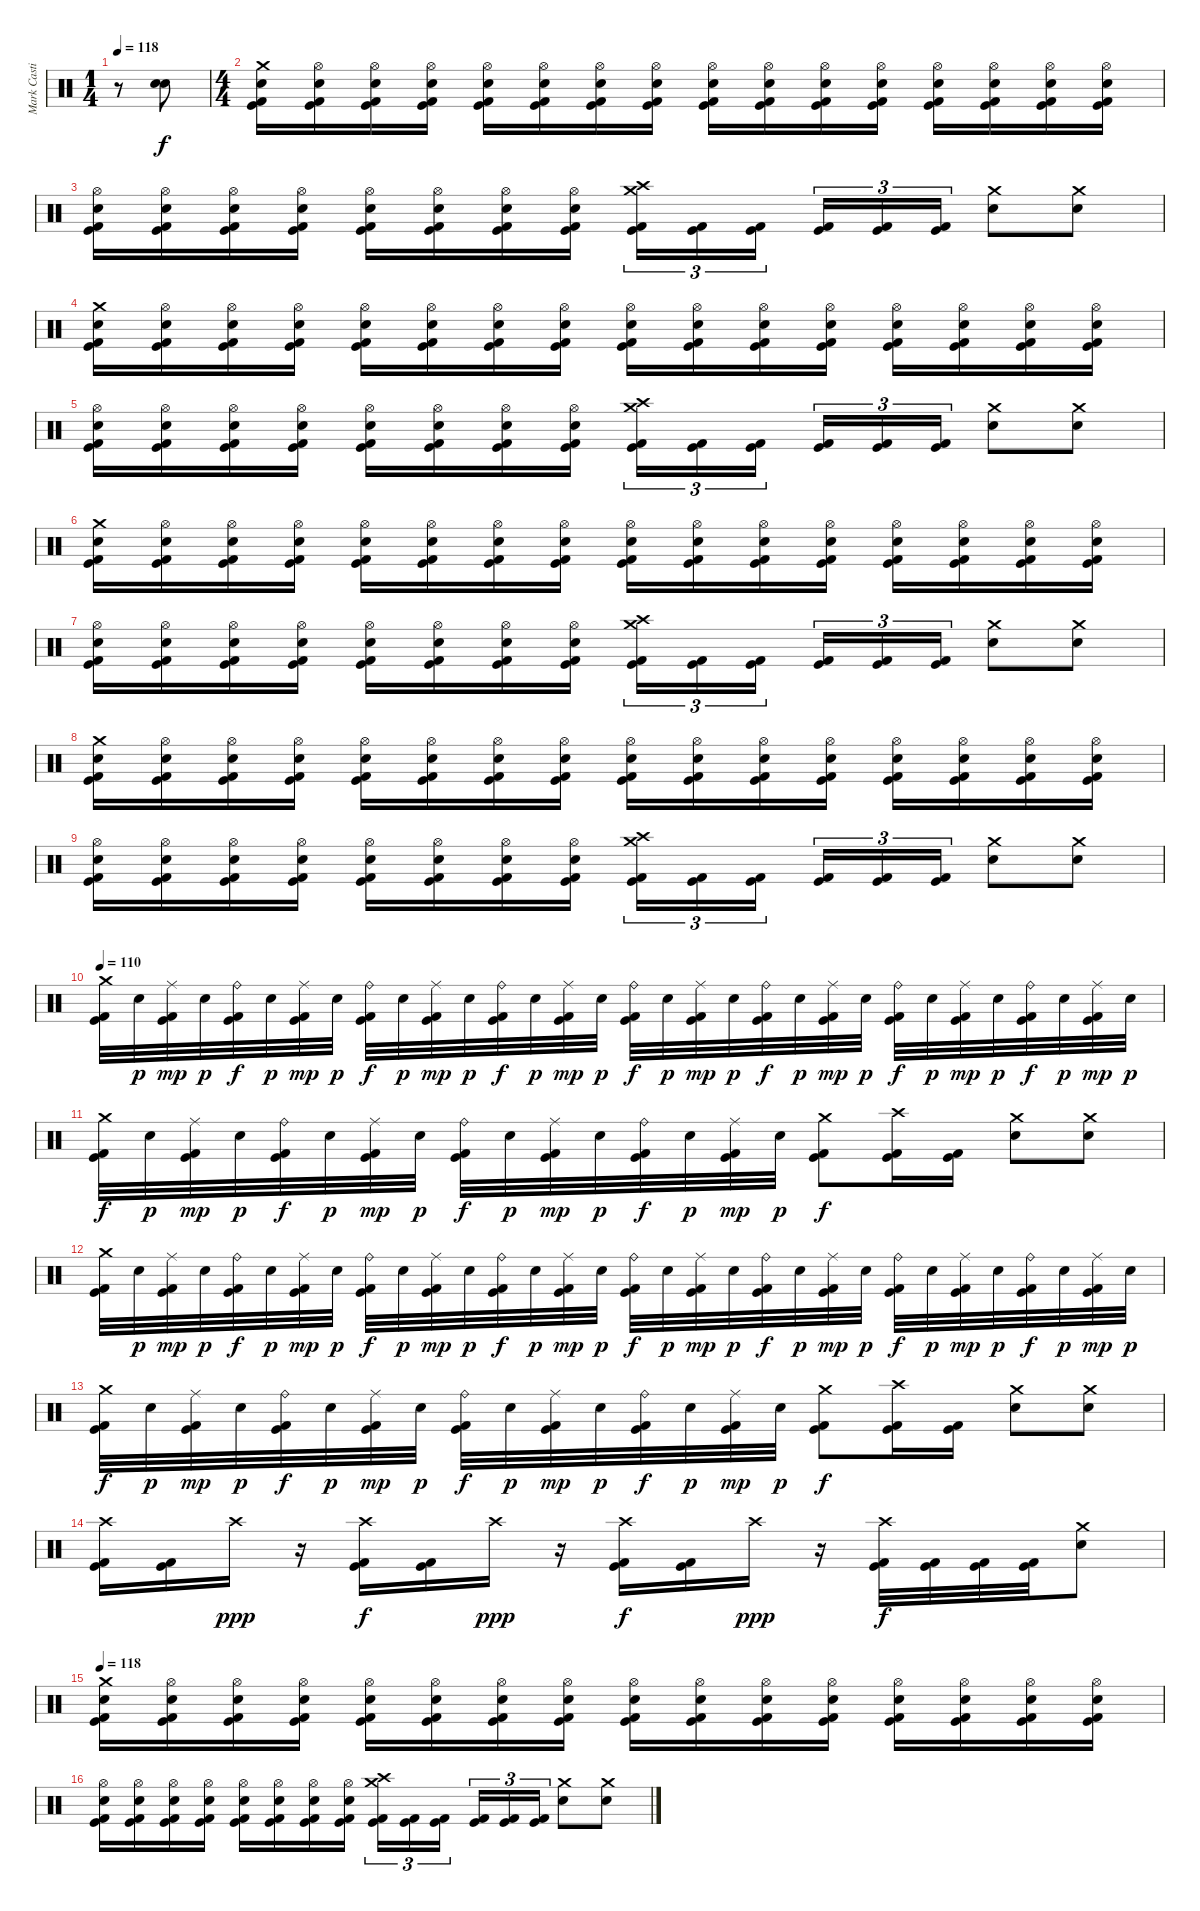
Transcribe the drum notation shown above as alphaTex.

\track ("Mark Castillo" "Mark Casti") {instrument percussion}
\staff {score}
\articulation defaults
\ts (1 4)
\tempo 118
\clef neutral
\ks c
r.8{dy f} ("Electric Snare (hit)" "Electric Snare (hit)").8{bu 240} |
\ts (4 4)
("Crash medium (hit)" "Electric Snare (hit)" "Kick (hit)" "Kick (hit) 2").16 ("Hi-Hat (open)" "Electric Snare (hit)" "Kick (hit)" "Kick (hit) 2").16 ("Hi-Hat (open)" "Electric Snare (hit)" "Kick (hit)" "Kick (hit) 2").16 ("Hi-Hat (open)" "Electric Snare (hit)" "Kick (hit)" "Kick (hit) 2").16 ("Hi-Hat (open)" "Electric Snare (hit)" "Kick (hit)" "Kick (hit) 2").16 ("Hi-Hat (open)" "Electric Snare (hit)" "Kick (hit)" "Kick (hit) 2").16 ("Hi-Hat (open)" "Electric Snare (hit)" "Kick (hit)" "Kick (hit) 2").16 ("Hi-Hat (open)" "Electric Snare (hit)" "Kick (hit)" "Kick (hit) 2").16 ("Hi-Hat (open)" "Electric Snare (hit)" "Kick (hit)" "Kick (hit) 2").16 ("Hi-Hat (open)" "Electric Snare (hit)" "Kick (hit)" "Kick (hit) 2").16 ("Hi-Hat (open)" "Electric Snare (hit)" "Kick (hit)" "Kick (hit) 2").16 ("Hi-Hat (open)" "Electric Snare (hit)" "Kick (hit)" "Kick (hit) 2").16 ("Hi-Hat (open)" "Electric Snare (hit)" "Kick (hit)" "Kick (hit) 2").16 ("Hi-Hat (open)" "Electric Snare (hit)" "Kick (hit)" "Kick (hit) 2").16 ("Hi-Hat (open)" "Electric Snare (hit)" "Kick (hit)" "Kick (hit) 2").16 ("Hi-Hat (open)" "Electric Snare (hit)" "Kick (hit)" "Kick (hit) 2").16 |
("Hi-Hat (open)" "Electric Snare (hit)" "Kick (hit)" "Kick (hit) 2").16 ("Hi-Hat (open)" "Electric Snare (hit)" "Kick (hit)" "Kick (hit) 2").16 ("Hi-Hat (open)" "Electric Snare (hit)" "Kick (hit)" "Kick (hit) 2").16 ("Hi-Hat (open)" "Electric Snare (hit)" "Kick (hit)" "Kick (hit) 2").16 ("Hi-Hat (open)" "Electric Snare (hit)" "Kick (hit)" "Kick (hit) 2").16 ("Hi-Hat (open)" "Electric Snare (hit)" "Kick (hit)" "Kick (hit) 2").16 ("Hi-Hat (open)" "Electric Snare (hit)" "Kick (hit)" "Kick (hit) 2").16 ("Hi-Hat (open)" "Electric Snare (hit)" "Kick (hit)" "Kick (hit) 2").16 ("Crash medium (hit)" "Crash high (hit)" "Kick (hit)" "Kick (hit) 2").16{tu (3 2)} ("Kick (hit)" "Kick (hit) 2").16{tu (3 2)} ("Kick (hit)" "Kick (hit) 2").16{tu (3 2) beam splitsecondary} ("Kick (hit)" "Kick (hit) 2").16{tu (3 2)} ("Kick (hit)" "Kick (hit) 2").16{tu (3 2)} ("Kick (hit)" "Kick (hit) 2").16{tu (3 2)} ("Crash medium (hit)" "Electric Snare (hit)").8 ("Crash medium (hit)" "Electric Snare (hit)").8 |
("Crash medium (hit)" "Electric Snare (hit)" "Kick (hit)" "Kick (hit) 2").16 ("Hi-Hat (open)" "Electric Snare (hit)" "Kick (hit)" "Kick (hit) 2").16 ("Hi-Hat (open)" "Electric Snare (hit)" "Kick (hit)" "Kick (hit) 2").16 ("Hi-Hat (open)" "Electric Snare (hit)" "Kick (hit)" "Kick (hit) 2").16 ("Hi-Hat (open)" "Electric Snare (hit)" "Kick (hit)" "Kick (hit) 2").16 ("Hi-Hat (open)" "Electric Snare (hit)" "Kick (hit)" "Kick (hit) 2").16 ("Hi-Hat (open)" "Electric Snare (hit)" "Kick (hit)" "Kick (hit) 2").16 ("Hi-Hat (open)" "Electric Snare (hit)" "Kick (hit)" "Kick (hit) 2").16 ("Hi-Hat (open)" "Electric Snare (hit)" "Kick (hit)" "Kick (hit) 2").16 ("Hi-Hat (open)" "Electric Snare (hit)" "Kick (hit)" "Kick (hit) 2").16 ("Hi-Hat (open)" "Electric Snare (hit)" "Kick (hit)" "Kick (hit) 2").16 ("Hi-Hat (open)" "Electric Snare (hit)" "Kick (hit)" "Kick (hit) 2").16 ("Hi-Hat (open)" "Electric Snare (hit)" "Kick (hit)" "Kick (hit) 2").16 ("Hi-Hat (open)" "Electric Snare (hit)" "Kick (hit)" "Kick (hit) 2").16 ("Hi-Hat (open)" "Electric Snare (hit)" "Kick (hit)" "Kick (hit) 2").16 ("Hi-Hat (open)" "Electric Snare (hit)" "Kick (hit)" "Kick (hit) 2").16 |
("Hi-Hat (open)" "Electric Snare (hit)" "Kick (hit)" "Kick (hit) 2").16 ("Hi-Hat (open)" "Electric Snare (hit)" "Kick (hit)" "Kick (hit) 2").16 ("Hi-Hat (open)" "Electric Snare (hit)" "Kick (hit)" "Kick (hit) 2").16 ("Hi-Hat (open)" "Electric Snare (hit)" "Kick (hit)" "Kick (hit) 2").16 ("Hi-Hat (open)" "Electric Snare (hit)" "Kick (hit)" "Kick (hit) 2").16 ("Hi-Hat (open)" "Electric Snare (hit)" "Kick (hit)" "Kick (hit) 2").16 ("Hi-Hat (open)" "Electric Snare (hit)" "Kick (hit)" "Kick (hit) 2").16 ("Hi-Hat (open)" "Electric Snare (hit)" "Kick (hit)" "Kick (hit) 2").16 ("Crash medium (hit)" "Crash high (hit)" "Kick (hit)" "Kick (hit) 2").16{tu (3 2)} ("Kick (hit)" "Kick (hit) 2").16{tu (3 2)} ("Kick (hit)" "Kick (hit) 2").16{tu (3 2) beam splitsecondary} ("Kick (hit)" "Kick (hit) 2").16{tu (3 2)} ("Kick (hit)" "Kick (hit) 2").16{tu (3 2)} ("Kick (hit)" "Kick (hit) 2").16{tu (3 2)} ("Crash medium (hit)" "Electric Snare (hit)").8 ("Crash medium (hit)" "Electric Snare (hit)").8 |
("Crash medium (hit)" "Electric Snare (hit)" "Kick (hit)" "Kick (hit) 2").16 ("Hi-Hat (open)" "Electric Snare (hit)" "Kick (hit)" "Kick (hit) 2").16 ("Hi-Hat (open)" "Electric Snare (hit)" "Kick (hit)" "Kick (hit) 2").16 ("Hi-Hat (open)" "Electric Snare (hit)" "Kick (hit)" "Kick (hit) 2").16 ("Hi-Hat (open)" "Electric Snare (hit)" "Kick (hit)" "Kick (hit) 2").16 ("Hi-Hat (open)" "Electric Snare (hit)" "Kick (hit)" "Kick (hit) 2").16 ("Hi-Hat (open)" "Electric Snare (hit)" "Kick (hit)" "Kick (hit) 2").16 ("Hi-Hat (open)" "Electric Snare (hit)" "Kick (hit)" "Kick (hit) 2").16 ("Hi-Hat (open)" "Electric Snare (hit)" "Kick (hit)" "Kick (hit) 2").16 ("Hi-Hat (open)" "Electric Snare (hit)" "Kick (hit)" "Kick (hit) 2").16 ("Hi-Hat (open)" "Electric Snare (hit)" "Kick (hit)" "Kick (hit) 2").16 ("Hi-Hat (open)" "Electric Snare (hit)" "Kick (hit)" "Kick (hit) 2").16 ("Hi-Hat (open)" "Electric Snare (hit)" "Kick (hit)" "Kick (hit) 2").16 ("Hi-Hat (open)" "Electric Snare (hit)" "Kick (hit)" "Kick (hit) 2").16 ("Hi-Hat (open)" "Electric Snare (hit)" "Kick (hit)" "Kick (hit) 2").16 ("Hi-Hat (open)" "Electric Snare (hit)" "Kick (hit)" "Kick (hit) 2").16 |
("Hi-Hat (open)" "Electric Snare (hit)" "Kick (hit)" "Kick (hit) 2").16 ("Hi-Hat (open)" "Electric Snare (hit)" "Kick (hit)" "Kick (hit) 2").16 ("Hi-Hat (open)" "Electric Snare (hit)" "Kick (hit)" "Kick (hit) 2").16 ("Hi-Hat (open)" "Electric Snare (hit)" "Kick (hit)" "Kick (hit) 2").16 ("Hi-Hat (open)" "Electric Snare (hit)" "Kick (hit)" "Kick (hit) 2").16 ("Hi-Hat (open)" "Electric Snare (hit)" "Kick (hit)" "Kick (hit) 2").16 ("Hi-Hat (open)" "Electric Snare (hit)" "Kick (hit)" "Kick (hit) 2").16 ("Hi-Hat (open)" "Electric Snare (hit)" "Kick (hit)" "Kick (hit) 2").16 ("Crash medium (hit)" "Crash high (hit)" "Kick (hit)" "Kick (hit) 2").16{tu (3 2)} ("Kick (hit)" "Kick (hit) 2").16{tu (3 2)} ("Kick (hit)" "Kick (hit) 2").16{tu (3 2) beam splitsecondary} ("Kick (hit)" "Kick (hit) 2").16{tu (3 2)} ("Kick (hit)" "Kick (hit) 2").16{tu (3 2)} ("Kick (hit)" "Kick (hit) 2").16{tu (3 2)} ("Crash medium (hit)" "Electric Snare (hit)").8 ("Crash medium (hit)" "Electric Snare (hit)").8 |
("Crash medium (hit)" "Electric Snare (hit)" "Kick (hit)" "Kick (hit) 2").16 ("Hi-Hat (open)" "Electric Snare (hit)" "Kick (hit)" "Kick (hit) 2").16 ("Hi-Hat (open)" "Electric Snare (hit)" "Kick (hit)" "Kick (hit) 2").16 ("Hi-Hat (open)" "Electric Snare (hit)" "Kick (hit)" "Kick (hit) 2").16 ("Hi-Hat (open)" "Electric Snare (hit)" "Kick (hit)" "Kick (hit) 2").16 ("Hi-Hat (open)" "Electric Snare (hit)" "Kick (hit)" "Kick (hit) 2").16 ("Hi-Hat (open)" "Electric Snare (hit)" "Kick (hit)" "Kick (hit) 2").16 ("Hi-Hat (open)" "Electric Snare (hit)" "Kick (hit)" "Kick (hit) 2").16 ("Hi-Hat (open)" "Electric Snare (hit)" "Kick (hit)" "Kick (hit) 2").16 ("Hi-Hat (open)" "Electric Snare (hit)" "Kick (hit)" "Kick (hit) 2").16 ("Hi-Hat (open)" "Electric Snare (hit)" "Kick (hit)" "Kick (hit) 2").16 ("Hi-Hat (open)" "Electric Snare (hit)" "Kick (hit)" "Kick (hit) 2").16 ("Hi-Hat (open)" "Electric Snare (hit)" "Kick (hit)" "Kick (hit) 2").16 ("Hi-Hat (open)" "Electric Snare (hit)" "Kick (hit)" "Kick (hit) 2").16 ("Hi-Hat (open)" "Electric Snare (hit)" "Kick (hit)" "Kick (hit) 2").16 ("Hi-Hat (open)" "Electric Snare (hit)" "Kick (hit)" "Kick (hit) 2").16 |
("Hi-Hat (open)" "Electric Snare (hit)" "Kick (hit)" "Kick (hit) 2").16 ("Hi-Hat (open)" "Electric Snare (hit)" "Kick (hit)" "Kick (hit) 2").16 ("Hi-Hat (open)" "Electric Snare (hit)" "Kick (hit)" "Kick (hit) 2").16 ("Hi-Hat (open)" "Electric Snare (hit)" "Kick (hit)" "Kick (hit) 2").16 ("Hi-Hat (open)" "Electric Snare (hit)" "Kick (hit)" "Kick (hit) 2").16 ("Hi-Hat (open)" "Electric Snare (hit)" "Kick (hit)" "Kick (hit) 2").16 ("Hi-Hat (open)" "Electric Snare (hit)" "Kick (hit)" "Kick (hit) 2").16 ("Hi-Hat (open)" "Electric Snare (hit)" "Kick (hit)" "Kick (hit) 2").16 ("Crash medium (hit)" "Crash high (hit)" "Kick (hit)" "Kick (hit) 2").16{tu (3 2)} ("Kick (hit)" "Kick (hit) 2").16{tu (3 2)} ("Kick (hit)" "Kick (hit) 2").16{tu (3 2) beam splitsecondary} ("Kick (hit)" "Kick (hit) 2").16{tu (3 2)} ("Kick (hit)" "Kick (hit) 2").16{tu (3 2)} ("Kick (hit)" "Kick (hit) 2").16{tu (3 2)} ("Crash medium (hit)" "Electric Snare (hit)").8 ("Crash medium (hit)" "Electric Snare (hit)").8 |
\tempo 110
("Crash medium (hit)" "Kick (hit)" "Kick (hit) 2").32 "Electric Snare (hit)".32{dy p} ("Ride (middle)" "Kick (hit)" "Kick (hit) 2").32{dy mp} "Electric Snare (hit)".32{dy p} ("Ride (bell)" "Kick (hit)" "Kick (hit) 2").32{dy f} "Electric Snare (hit)".32{dy p} ("Ride (middle)" "Kick (hit)" "Kick (hit) 2").32{dy mp} "Electric Snare (hit)".32{dy p} ("Ride (bell)" "Kick (hit)" "Kick (hit) 2").32{dy f} "Electric Snare (hit)".32{dy p} ("Ride (middle)" "Kick (hit)" "Kick (hit) 2").32{dy mp} "Electric Snare (hit)".32{dy p} ("Ride (bell)" "Kick (hit)" "Kick (hit) 2").32{dy f} "Electric Snare (hit)".32{dy p} ("Ride (middle)" "Kick (hit)" "Kick (hit) 2").32{dy mp} "Electric Snare (hit)".32{dy p} ("Ride (bell)" "Kick (hit)" "Kick (hit) 2").32{dy f} "Electric Snare (hit)".32{dy p} ("Ride (middle)" "Kick (hit)" "Kick (hit) 2").32{dy mp} "Electric Snare (hit)".32{dy p} ("Ride (bell)" "Kick (hit)" "Kick (hit) 2").32{dy f} "Electric Snare (hit)".32{dy p} ("Ride (middle)" "Kick (hit)" "Kick (hit) 2").32{dy mp} "Electric Snare (hit)".32{dy p} ("Ride (bell)" "Kick (hit)" "Kick (hit) 2").32{dy f} "Electric Snare (hit)".32{dy p} ("Ride (middle)" "Kick (hit)" "Kick (hit) 2").32{dy mp} "Electric Snare (hit)".32{dy p} ("Ride (bell)" "Kick (hit)" "Kick (hit) 2").32{dy f} "Electric Snare (hit)".32{dy p} ("Ride (middle)" "Kick (hit)" "Kick (hit) 2").32{dy mp} "Electric Snare (hit)".32{dy p} |
("Crash medium (hit)" "Kick (hit)" "Kick (hit) 2").32{dy f} "Electric Snare (hit)".32{dy p} ("Ride (middle)" "Kick (hit)" "Kick (hit) 2").32{dy mp} "Electric Snare (hit)".32{dy p} ("Ride (bell)" "Kick (hit)" "Kick (hit) 2").32{dy f} "Electric Snare (hit)".32{dy p} ("Ride (middle)" "Kick (hit)" "Kick (hit) 2").32{dy mp} "Electric Snare (hit)".32{dy p} ("Ride (bell)" "Kick (hit)" "Kick (hit) 2").32{dy f} "Electric Snare (hit)".32{dy p} ("Ride (middle)" "Kick (hit)" "Kick (hit) 2").32{dy mp} "Electric Snare (hit)".32{dy p} ("Ride (bell)" "Kick (hit)" "Kick (hit) 2").32{dy f} "Electric Snare (hit)".32{dy p} ("Ride (middle)" "Kick (hit)" "Kick (hit) 2").32{dy mp} "Electric Snare (hit)".32{dy p} ("Crash medium (hit)" "Kick (hit)" "Kick (hit) 2").8{dy f} ("Crash high (hit)" "Kick (hit)" "Kick (hit) 2").16 ("Kick (hit)" "Kick (hit) 2").16 ("Crash medium (hit)" "Electric Snare (hit)").8 ("Crash medium (hit)" "Electric Snare (hit)").8 |
("Crash medium (hit)" "Kick (hit)" "Kick (hit) 2").32 "Electric Snare (hit)".32{dy p} ("Ride (middle)" "Kick (hit)" "Kick (hit) 2").32{dy mp} "Electric Snare (hit)".32{dy p} ("Ride (bell)" "Kick (hit)" "Kick (hit) 2").32{dy f} "Electric Snare (hit)".32{dy p} ("Ride (middle)" "Kick (hit)" "Kick (hit) 2").32{dy mp} "Electric Snare (hit)".32{dy p} ("Ride (bell)" "Kick (hit)" "Kick (hit) 2").32{dy f} "Electric Snare (hit)".32{dy p} ("Ride (middle)" "Kick (hit)" "Kick (hit) 2").32{dy mp} "Electric Snare (hit)".32{dy p} ("Ride (bell)" "Kick (hit)" "Kick (hit) 2").32{dy f} "Electric Snare (hit)".32{dy p} ("Ride (middle)" "Kick (hit)" "Kick (hit) 2").32{dy mp} "Electric Snare (hit)".32{dy p} ("Ride (bell)" "Kick (hit)" "Kick (hit) 2").32{dy f} "Electric Snare (hit)".32{dy p} ("Ride (middle)" "Kick (hit)" "Kick (hit) 2").32{dy mp} "Electric Snare (hit)".32{dy p} ("Ride (bell)" "Kick (hit)" "Kick (hit) 2").32{dy f} "Electric Snare (hit)".32{dy p} ("Ride (middle)" "Kick (hit)" "Kick (hit) 2").32{dy mp} "Electric Snare (hit)".32{dy p} ("Ride (bell)" "Kick (hit)" "Kick (hit) 2").32{dy f} "Electric Snare (hit)".32{dy p} ("Ride (middle)" "Kick (hit)" "Kick (hit) 2").32{dy mp} "Electric Snare (hit)".32{dy p} ("Ride (bell)" "Kick (hit)" "Kick (hit) 2").32{dy f} "Electric Snare (hit)".32{dy p} ("Ride (middle)" "Kick (hit)" "Kick (hit) 2").32{dy mp} "Electric Snare (hit)".32{dy p} |
("Crash medium (hit)" "Kick (hit)" "Kick (hit) 2").32{dy f} "Electric Snare (hit)".32{dy p} ("Ride (middle)" "Kick (hit)" "Kick (hit) 2").32{dy mp} "Electric Snare (hit)".32{dy p} ("Ride (bell)" "Kick (hit)" "Kick (hit) 2").32{dy f} "Electric Snare (hit)".32{dy p} ("Ride (middle)" "Kick (hit)" "Kick (hit) 2").32{dy mp} "Electric Snare (hit)".32{dy p} ("Ride (bell)" "Kick (hit)" "Kick (hit) 2").32{dy f} "Electric Snare (hit)".32{dy p} ("Ride (middle)" "Kick (hit)" "Kick (hit) 2").32{dy mp} "Electric Snare (hit)".32{dy p} ("Ride (bell)" "Kick (hit)" "Kick (hit) 2").32{dy f} "Electric Snare (hit)".32{dy p} ("Ride (middle)" "Kick (hit)" "Kick (hit) 2").32{dy mp} "Electric Snare (hit)".32{dy p} ("Crash medium (hit)" "Kick (hit)" "Kick (hit) 2").8{dy f} ("Crash high (hit)" "Kick (hit)" "Kick (hit) 2").16 ("Kick (hit)" "Kick (hit) 2").16 ("Crash medium (hit)" "Electric Snare (hit)").8 ("Crash medium (hit)" "Electric Snare (hit)").8 |
("Crash high (hit)" "Kick (hit)" "Kick (hit) 2").16 ("Kick (hit)" "Kick (hit) 2").16 "Crash high (hit)".16{dy ppp} r.16 ("Crash high (hit)" "Kick (hit)" "Kick (hit) 2").16{dy f} ("Kick (hit)" "Kick (hit) 2").16 "Crash high (hit)".16{dy ppp} r.16 ("Crash high (hit)" "Kick (hit)" "Kick (hit) 2").16{dy f} ("Kick (hit)" "Kick (hit) 2").16 "Crash high (hit)".16{dy ppp} r.16 ("Crash high (hit)" "Kick (hit)" "Kick (hit) 2").32{dy f} ("Kick (hit)" "Kick (hit) 2").32 ("Kick (hit)" "Kick (hit) 2").32 ("Kick (hit)" "Kick (hit) 2").32 ("Crash medium (hit)" "Electric Snare (hit)").8 |
\tempo 118
("Crash medium (hit)" "Electric Snare (hit)" "Kick (hit)" "Kick (hit) 2").16 ("Hi-Hat (open)" "Electric Snare (hit)" "Kick (hit)" "Kick (hit) 2").16 ("Hi-Hat (open)" "Electric Snare (hit)" "Kick (hit)" "Kick (hit) 2").16 ("Hi-Hat (open)" "Electric Snare (hit)" "Kick (hit)" "Kick (hit) 2").16 ("Hi-Hat (open)" "Electric Snare (hit)" "Kick (hit)" "Kick (hit) 2").16 ("Hi-Hat (open)" "Electric Snare (hit)" "Kick (hit)" "Kick (hit) 2").16 ("Hi-Hat (open)" "Electric Snare (hit)" "Kick (hit)" "Kick (hit) 2").16 ("Hi-Hat (open)" "Electric Snare (hit)" "Kick (hit)" "Kick (hit) 2").16 ("Hi-Hat (open)" "Electric Snare (hit)" "Kick (hit)" "Kick (hit) 2").16 ("Hi-Hat (open)" "Electric Snare (hit)" "Kick (hit)" "Kick (hit) 2").16 ("Hi-Hat (open)" "Electric Snare (hit)" "Kick (hit)" "Kick (hit) 2").16 ("Hi-Hat (open)" "Electric Snare (hit)" "Kick (hit)" "Kick (hit) 2").16 ("Hi-Hat (open)" "Electric Snare (hit)" "Kick (hit)" "Kick (hit) 2").16 ("Hi-Hat (open)" "Electric Snare (hit)" "Kick (hit)" "Kick (hit) 2").16 ("Hi-Hat (open)" "Electric Snare (hit)" "Kick (hit)" "Kick (hit) 2").16 ("Hi-Hat (open)" "Electric Snare (hit)" "Kick (hit)" "Kick (hit) 2").16 |
("Hi-Hat (open)" "Electric Snare (hit)" "Kick (hit)" "Kick (hit) 2").16 ("Hi-Hat (open)" "Electric Snare (hit)" "Kick (hit)" "Kick (hit) 2").16 ("Hi-Hat (open)" "Electric Snare (hit)" "Kick (hit)" "Kick (hit) 2").16 ("Hi-Hat (open)" "Electric Snare (hit)" "Kick (hit)" "Kick (hit) 2").16 ("Hi-Hat (open)" "Electric Snare (hit)" "Kick (hit)" "Kick (hit) 2").16 ("Hi-Hat (open)" "Electric Snare (hit)" "Kick (hit)" "Kick (hit) 2").16 ("Hi-Hat (open)" "Electric Snare (hit)" "Kick (hit)" "Kick (hit) 2").16 ("Hi-Hat (open)" "Electric Snare (hit)" "Kick (hit)" "Kick (hit) 2").16 ("Crash medium (hit)" "Crash high (hit)" "Kick (hit)" "Kick (hit) 2").16{tu (3 2)} ("Kick (hit)" "Kick (hit) 2").16{tu (3 2)} ("Kick (hit)" "Kick (hit) 2").16{tu (3 2) beam splitsecondary} ("Kick (hit)" "Kick (hit) 2").16{tu (3 2)} ("Kick (hit)" "Kick (hit) 2").16{tu (3 2)} ("Kick (hit)" "Kick (hit) 2").16{tu (3 2)} ("Crash medium (hit)" "Electric Snare (hit)").8 ("Crash medium (hit)" "Electric Snare (hit)").8
